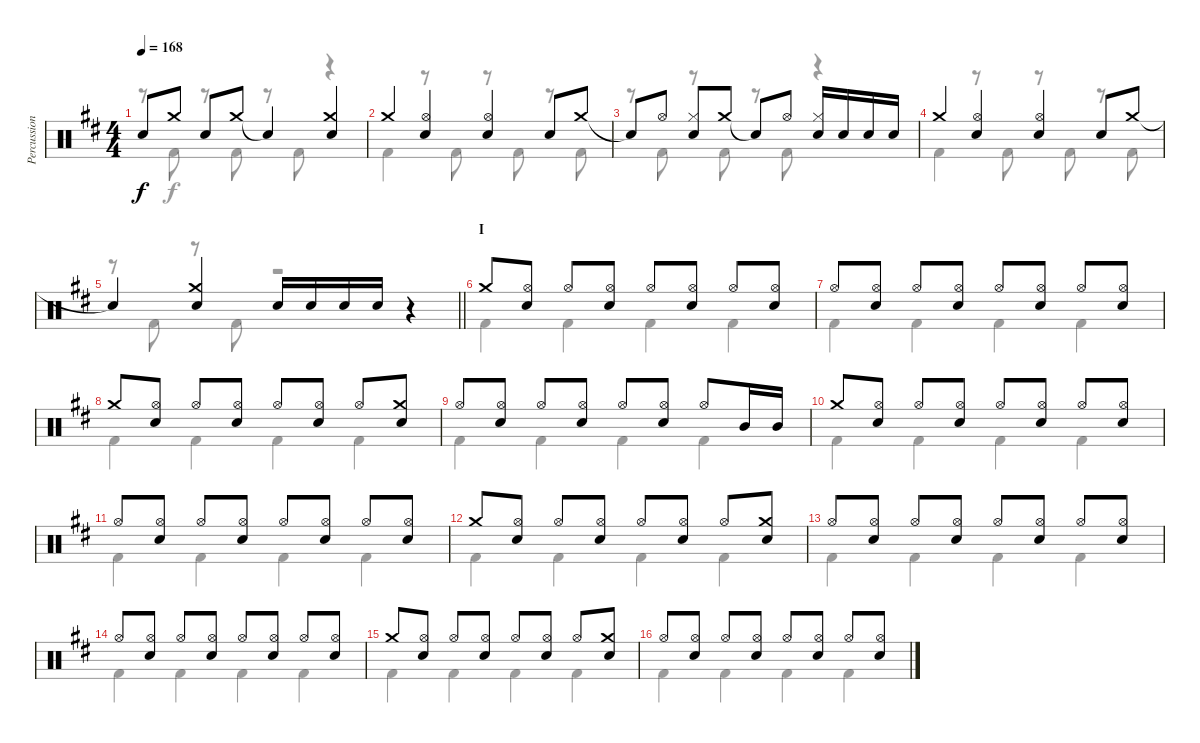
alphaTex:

\track ("Percussion" "Percussion") {instrument percussion}
\staff {score}
\articulation defaults
\voice
\ts (4 4)
\tempo 168
\clef neutral
\ks d "Snare (hit)"{t}.8{dy f} "Crash medium (hit)".8 "Snare (hit) 2".8 "Crash medium (hit)".8 "Snare (hit)"{t}.4
("Crash medium (hit)" "Snare (hit) 2").4 |
"Crash medium (hit)".4 ("Hi-Hat (open)" "Snare (hit) 2").4 ("Hi-Hat (open)" "Snare (hit) 2").4 "Snare (hit) 2".8 "Crash medium (hit)".8 |
"Snare (hit)"{t}.8 "Hi-Hat (open)".8 ("Hi-Hat (closed)" "Snare (hit) 2").8 "Crash medium (hit)".8 "Snare (hit)"{t}.8 "Hi-Hat (open)".8 ("Hi-Hat (closed)" "Snare (hit) 2").16 "Snare (hit) 2".16 "Snare (hit) 2".16 "Snare (hit) 2".16 |
"Crash medium (hit)".4 ("Hi-Hat (open)" "Snare (hit) 2").4 ("Hi-Hat (open)" "Snare (hit) 2").4 "Snare (hit) 2".8 "Crash medium (hit)".8 |
\barLineRight lightlight "Snare (hit)"{t}.4
("Crash medium (hit)" "Snare (hit) 2").4 "Snare (hit) 2".16 "Snare (hit) 2".16 "Snare (hit) 2".16 "Snare (hit) 2".16 r.4 |
\section ("" "I")
"Crash medium (hit)".8 ("Hi-Hat (open)" "Snare (hit) 2").8 "Hi-Hat (open)".8 ("Hi-Hat (open)" "Snare (hit) 2").8 "Hi-Hat (open)".8 ("Hi-Hat (open)" "Snare (hit) 2").8 "Hi-Hat (open)".8 ("Hi-Hat (open)" "Snare (hit) 2").8 |
"Hi-Hat (open)".8 ("Hi-Hat (open)" "Snare (hit) 2").8 "Hi-Hat (open)".8 ("Hi-Hat (open)" "Snare (hit) 2").8 "Hi-Hat (open)".8 ("Hi-Hat (open)" "Snare (hit) 2").8 "Hi-Hat (open)".8 ("Hi-Hat (open)" "Snare (hit) 2").8 |
"Crash medium (hit)".8 ("Hi-Hat (open)" "Snare (hit) 2").8 "Hi-Hat (open)".8 ("Hi-Hat (open)" "Snare (hit) 2").8 "Hi-Hat (open)".8 ("Hi-Hat (open)" "Snare (hit) 2").8 "Hi-Hat (open)".8 ("Crash medium (hit)" "Snare (hit) 2").8 |
"Hi-Hat (open)".8 ("Hi-Hat (open)" "Snare (hit) 2").8 "Hi-Hat (open)".8 ("Hi-Hat (open)" "Snare (hit) 2").8 "Hi-Hat (open)".8 ("Hi-Hat (open)" "Snare (hit) 2").8 "Hi-Hat (open)".8 "Mid Tom (hit)".16 "Mid Tom (hit)".16 |
"Crash medium (hit)".8 ("Hi-Hat (open)" "Snare (hit) 2").8 "Hi-Hat (open)".8 ("Hi-Hat (open)" "Snare (hit) 2").8 "Hi-Hat (open)".8 ("Hi-Hat (open)" "Snare (hit) 2").8 "Hi-Hat (open)".8 ("Hi-Hat (open)" "Snare (hit) 2").8 |
"Hi-Hat (open)".8 ("Hi-Hat (open)" "Snare (hit) 2").8 "Hi-Hat (open)".8 ("Hi-Hat (open)" "Snare (hit) 2").8 "Hi-Hat (open)".8 ("Hi-Hat (open)" "Snare (hit) 2").8 "Hi-Hat (open)".8 ("Hi-Hat (open)" "Snare (hit) 2").8 |
"Crash medium (hit)".8 ("Hi-Hat (open)" "Snare (hit) 2").8 "Hi-Hat (open)".8 ("Hi-Hat (open)" "Snare (hit) 2").8 "Hi-Hat (open)".8 ("Hi-Hat (open)" "Snare (hit) 2").8 "Hi-Hat (open)".8 ("Crash medium (hit)" "Snare (hit) 2").8 |
"Hi-Hat (open)".8 ("Hi-Hat (open)" "Snare (hit) 2").8 "Hi-Hat (open)".8 ("Hi-Hat (open)" "Snare (hit) 2").8 "Hi-Hat (open)".8 ("Hi-Hat (open)" "Snare (hit) 2").8 "Hi-Hat (open)".8 ("Hi-Hat (open)" "Snare (hit) 2").8 |
"Hi-Hat (open)".8 ("Hi-Hat (open)" "Snare (hit) 2").8 "Hi-Hat (open)".8 ("Hi-Hat (open)" "Snare (hit) 2").8 "Hi-Hat (open)".8 ("Hi-Hat (open)" "Snare (hit) 2").8 "Hi-Hat (open)".8 ("Hi-Hat (open)" "Snare (hit) 2").8 |
"Crash medium (hit)".8 ("Hi-Hat (open)" "Snare (hit) 2").8 "Hi-Hat (open)".8 ("Hi-Hat (open)" "Snare (hit) 2").8 "Hi-Hat (open)".8 ("Hi-Hat (open)" "Snare (hit) 2").8 "Hi-Hat (open)".8 ("Crash medium (hit)" "Snare (hit) 2").8 |
"Hi-Hat (open)".8 ("Hi-Hat (open)" "Snare (hit) 2").8 "Hi-Hat (open)".8 ("Hi-Hat (open)" "Snare (hit) 2").8 "Hi-Hat (open)".8 ("Hi-Hat (open)" "Snare (hit) 2").8 "Hi-Hat (open)".8 ("Hi-Hat (open)" "Snare (hit) 2").8
\voice
\clef neutral
\ottava regular
\simile none
\ks d
r.8{dy f} "Kick (hit) 2".8 r.8 "Kick (hit) 2".8 r.8 "Kick (hit) 2".8 r.4 |
"Kick (hit) 2".4 r.8 "Kick (hit) 2".8 r.8 "Kick (hit) 2".8 r.8 "Kick (hit) 2".8 |
r.8 "Kick (hit) 2".8 r.8 "Kick (hit) 2".8 r.8 "Kick (hit) 2".8 r.4 |
"Kick (hit) 2".4 r.8 "Kick (hit) 2".8 r.8 "Kick (hit) 2".8 r.8 "Kick (hit) 2".8 |
\barLineRight lightlight
r.8 "Kick (hit) 2".8 r.8 "Kick (hit) 2".8 r.2 |
"Kick (hit) 2".4 "Kick (hit) 2".4 "Kick (hit) 2".4 "Kick (hit) 2".4 |
"Kick (hit) 2".4 "Kick (hit) 2".4 "Kick (hit) 2".4 "Kick (hit) 2".4 |
"Kick (hit) 2".4 "Kick (hit) 2".4 "Kick (hit) 2".4 "Kick (hit) 2".4 |
"Kick (hit) 2".4 "Kick (hit) 2".4 "Kick (hit) 2".4 "Kick (hit) 2".4 |
"Kick (hit) 2".4 "Kick (hit) 2".4 "Kick (hit) 2".4 "Kick (hit) 2".4 |
"Kick (hit) 2".4 "Kick (hit) 2".4 "Kick (hit) 2".4 "Kick (hit) 2".4 |
"Kick (hit) 2".4 "Kick (hit) 2".4 "Kick (hit) 2".4 "Kick (hit) 2".4 |
"Kick (hit) 2".4 "Kick (hit) 2".4 "Kick (hit) 2".4 "Kick (hit) 2".4 |
"Kick (hit) 2".4 "Kick (hit) 2".4 "Kick (hit) 2".4 "Kick (hit) 2".4 |
"Kick (hit) 2".4 "Kick (hit) 2".4 "Kick (hit) 2".4 "Kick (hit) 2".4 |
"Kick (hit) 2".4 "Kick (hit) 2".4 "Kick (hit) 2".4 "Kick (hit) 2".4
